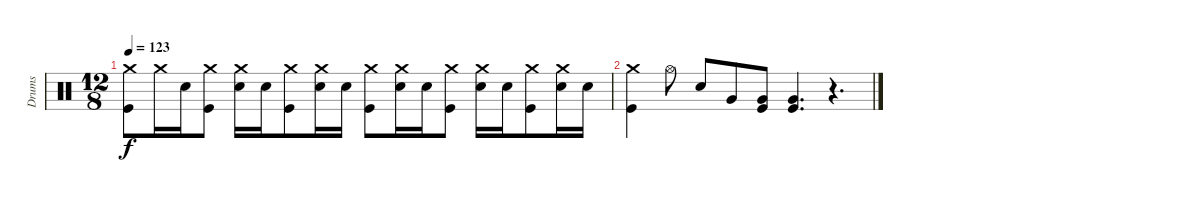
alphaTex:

\track ("Drums" "Drums") {instrument percussion}
\staff {score}
\articulation defaults
\ts (12 8)
\tempo 123
\clef neutral
\ks c
("Crash medium (hit)" "Kick (hit)").8{dy f} "Crash medium (hit)".16 "Snare (hit) 2".16 ("Crash medium (hit)" "Kick (hit)").8 ("Crash medium (hit)" "Snare (hit) 2").16 "Snare (hit) 2".16 ("Crash medium (hit)" "Kick (hit)").8 ("Crash medium (hit)" "Snare (hit) 2").16 "Snare (hit) 2".16 ("Crash medium (hit)" "Kick (hit)").8 ("Crash medium (hit)" "Snare (hit) 2").16 "Snare (hit) 2".16 ("Crash medium (hit)" "Kick (hit)").8 ("Crash medium (hit)" "Snare (hit) 2").16 "Snare (hit) 2".16 ("Crash medium (hit)" "Kick (hit)").8 ("Crash medium (hit)" "Snare (hit) 2").16 "Snare (hit) 2".16 |
("Crash medium (hit)" "Kick (hit)").4 "Hi-Hat (open)".8 "Snare (hit) 2".8 "Very Low Tom (hit)".8 ("Very Low Tom (hit)" "Kick (hit)").8 ("Very Low Tom (hit)" "Kick (hit)").4{d} r.4{d}
